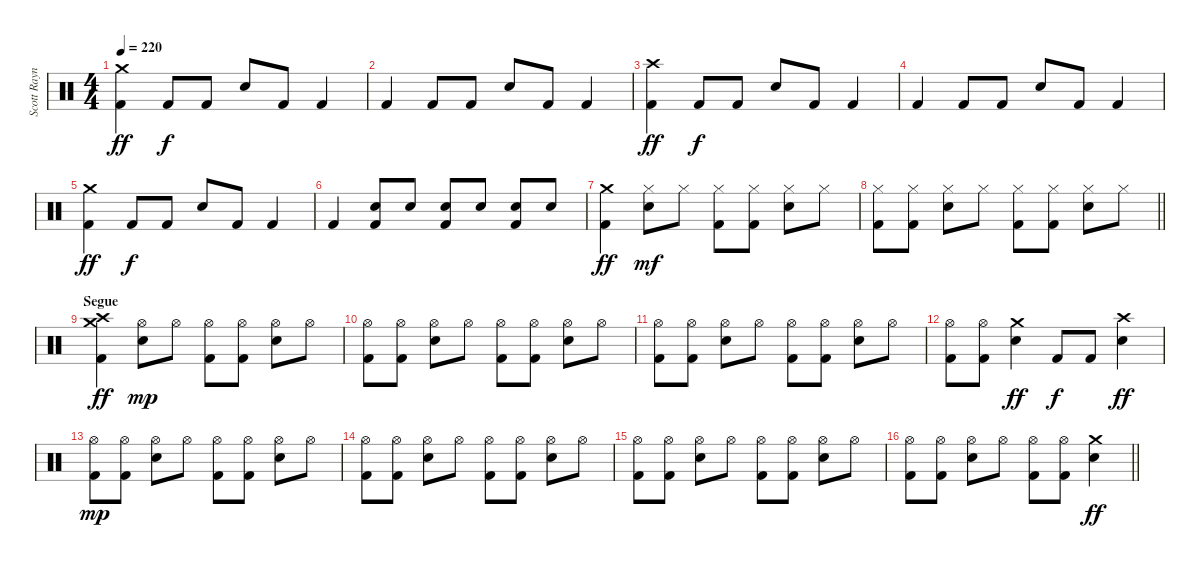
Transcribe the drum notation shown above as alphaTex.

\track ("Scott Raynor - Drums" "Scott Rayn") {instrument percussion}
\staff {score}
\articulation defaults
\ts (4 4)
\tempo 220
\clef neutral
\ks c
("Crash medium (hit)" "Kick (hit) 2").4{dy ff} "Kick (hit) 2".8{dy f} "Kick (hit) 2".8 "Electric Snare (hit)".8 "Kick (hit) 2".8 "Kick (hit) 2".4 |
"Kick (hit) 2".4 "Kick (hit) 2".8 "Kick (hit) 2".8 "Electric Snare (hit)".8 "Kick (hit) 2".8 "Kick (hit) 2".4 |
("Crash high (hit)" "Kick (hit) 2").4{dy ff} "Kick (hit) 2".8{dy f} "Kick (hit) 2".8 "Electric Snare (hit)".8 "Kick (hit) 2".8 "Kick (hit) 2".4 |
"Kick (hit) 2".4 "Kick (hit) 2".8 "Kick (hit) 2".8 "Electric Snare (hit)".8 "Kick (hit) 2".8 "Kick (hit) 2".4 |
("Crash medium (hit)" "Kick (hit) 2").4{dy ff} "Kick (hit) 2".8{dy f} "Kick (hit) 2".8 "Electric Snare (hit)".8 "Kick (hit) 2".8 "Kick (hit) 2".4 |
"Kick (hit) 2".4 ("Electric Snare (hit)" "Kick (hit) 2").8 "Electric Snare (hit)".8 ("Electric Snare (hit)" "Kick (hit) 2").8 "Electric Snare (hit)".8 ("Electric Snare (hit)" "Kick (hit) 2").8 "Electric Snare (hit)".8 |
("Crash medium (hit)" "Kick (hit) 2").4{dy ff} ("Hi-Hat (closed)" "Electric Snare (hit)").8{dy mf} "Hi-Hat (closed)".8 ("Hi-Hat (closed)" "Kick (hit) 2").8 ("Hi-Hat (closed)" "Kick (hit) 2").8 ("Hi-Hat (closed)" "Electric Snare (hit)").8 "Hi-Hat (closed)".8 |
\barLineRight lightlight
("Hi-Hat (closed)" "Kick (hit) 2").8 ("Hi-Hat (closed)" "Kick (hit) 2").8 ("Hi-Hat (closed)" "Electric Snare (hit)").8 "Hi-Hat (closed)".8 ("Hi-Hat (closed)" "Kick (hit) 2").8 ("Hi-Hat (closed)" "Kick (hit) 2").8 ("Hi-Hat (closed)" "Electric Snare (hit)").8 "Hi-Hat (closed)".8 |
\section ("" "Segue")
("Crash high (hit)" "Crash medium (hit)" "Kick (hit) 2").4{dy ff} ("Hi-Hat (open)" "Electric Snare (hit)").8{dy mp} "Hi-Hat (open)".8 ("Hi-Hat (open)" "Kick (hit) 2").8 ("Hi-Hat (open)" "Kick (hit) 2").8 ("Hi-Hat (open)" "Electric Snare (hit)").8 "Hi-Hat (open)".8 |
("Hi-Hat (open)" "Kick (hit) 2").8 ("Hi-Hat (open)" "Kick (hit) 2").8 ("Hi-Hat (open)" "Electric Snare (hit)").8 "Hi-Hat (open)".8 ("Hi-Hat (open)" "Kick (hit) 2").8 ("Hi-Hat (open)" "Kick (hit) 2").8 ("Hi-Hat (open)" "Electric Snare (hit)").8 "Hi-Hat (open)".8 |
("Hi-Hat (open)" "Kick (hit) 2").8 ("Hi-Hat (open)" "Kick (hit) 2").8 ("Hi-Hat (open)" "Electric Snare (hit)").8 "Hi-Hat (open)".8 ("Hi-Hat (open)" "Kick (hit) 2").8 ("Hi-Hat (open)" "Kick (hit) 2").8 ("Hi-Hat (open)" "Electric Snare (hit)").8 "Hi-Hat (open)".8 |
("Hi-Hat (open)" "Kick (hit) 2").8 ("Hi-Hat (open)" "Kick (hit) 2").8 ("Crash medium (hit)" "Electric Snare (hit)").4{dy ff} "Kick (hit) 2".8{dy f} "Kick (hit) 2".8 ("Crash high (hit)" "Electric Snare (hit)").4{dy ff} |
("Hi-Hat (open)" "Kick (hit) 2").8{dy mp} ("Hi-Hat (open)" "Kick (hit) 2").8 ("Hi-Hat (open)" "Electric Snare (hit)").8 "Hi-Hat (open)".8 ("Hi-Hat (open)" "Kick (hit) 2").8 ("Hi-Hat (open)" "Kick (hit) 2").8 ("Hi-Hat (open)" "Electric Snare (hit)").8 "Hi-Hat (open)".8 |
("Hi-Hat (open)" "Kick (hit) 2").8 ("Hi-Hat (open)" "Kick (hit) 2").8 ("Hi-Hat (open)" "Electric Snare (hit)").8 "Hi-Hat (open)".8 ("Hi-Hat (open)" "Kick (hit) 2").8 ("Hi-Hat (open)" "Kick (hit) 2").8 ("Hi-Hat (open)" "Electric Snare (hit)").8 "Hi-Hat (open)".8 |
("Hi-Hat (open)" "Kick (hit) 2").8 ("Hi-Hat (open)" "Kick (hit) 2").8 ("Hi-Hat (open)" "Electric Snare (hit)").8 "Hi-Hat (open)".8 ("Hi-Hat (open)" "Kick (hit) 2").8 ("Hi-Hat (open)" "Kick (hit) 2").8 ("Hi-Hat (open)" "Electric Snare (hit)").8 "Hi-Hat (open)".8 |
\barLineRight lightlight
("Hi-Hat (open)" "Kick (hit) 2").8 ("Hi-Hat (open)" "Kick (hit) 2").8 ("Hi-Hat (open)" "Electric Snare (hit)").8 "Hi-Hat (open)".8 ("Hi-Hat (open)" "Kick (hit) 2").8 ("Hi-Hat (open)" "Kick (hit) 2").8 ("Crash medium (hit)" "Electric Snare (hit)").4{dy ff}
